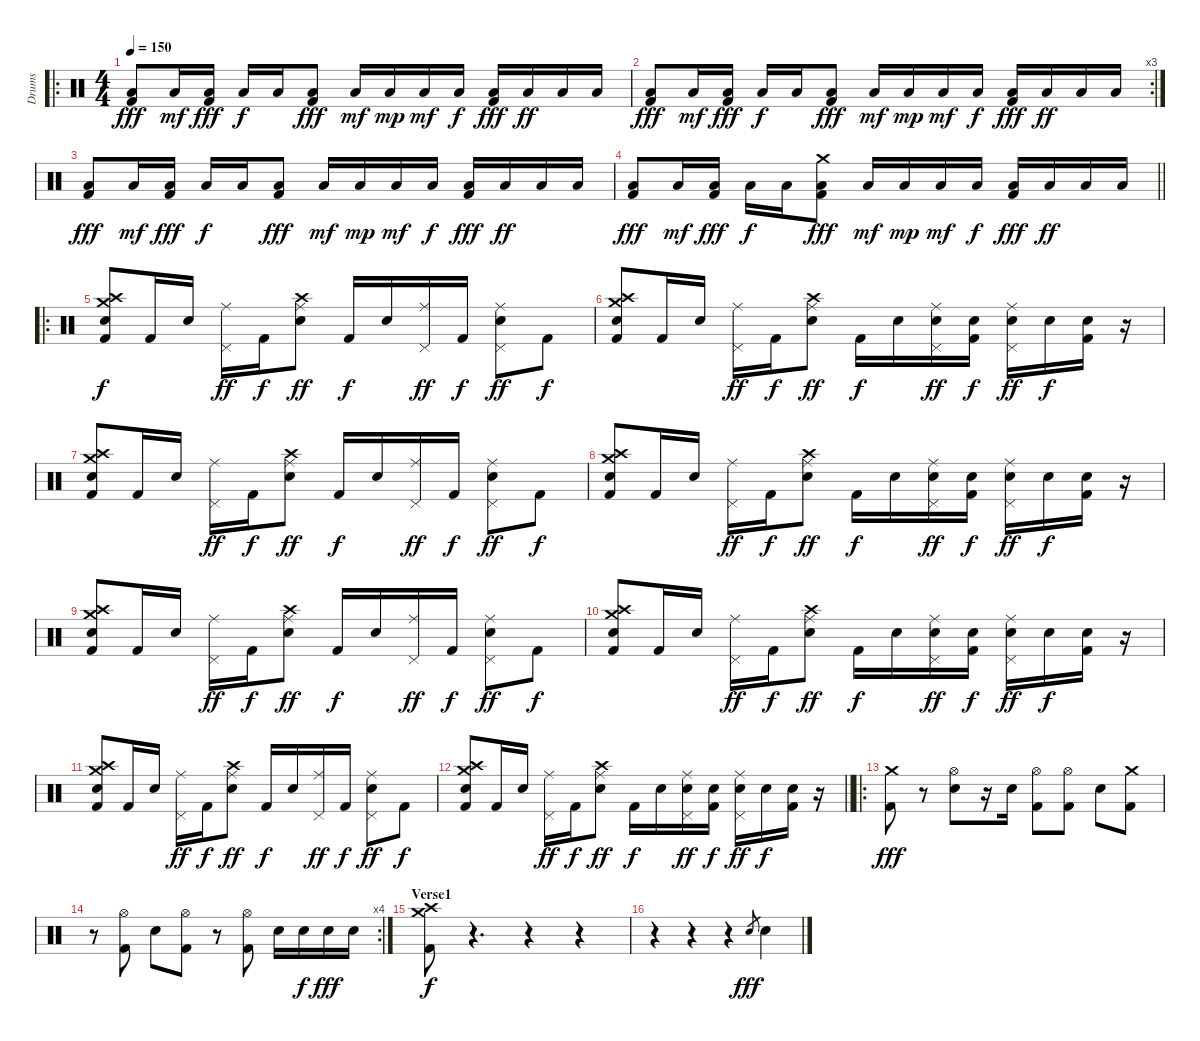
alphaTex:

\track ("Drums" "Drums") {instrument percussion}
\staff {score}
\articulation defaults
\ro
\ts (4 4)
\tempo 150
\clef neutral
\ks c
("Low Floor Tom (hit)" "Kick (hit) 2").8{dy fff} "Low Floor Tom (hit)".16{dy mf} ("Low Floor Tom (hit)" "Kick (hit) 2").16{dy fff} "Low Floor Tom (hit)".16{dy f} "Low Floor Tom (hit)".16 ("Low Floor Tom (hit)" "Kick (hit) 2").8{dy fff} "Low Floor Tom (hit)".16{dy mf} "Low Floor Tom (hit)".16{dy mp} "Low Floor Tom (hit)".16{dy mf} "Low Floor Tom (hit)".16{dy f} ("Low Floor Tom (hit)" "Kick (hit) 2").16{dy fff} "Low Floor Tom (hit)".16{dy ff} "Low Floor Tom (hit)".16 "Low Floor Tom (hit)".16 |
\rc 3
("Low Floor Tom (hit)" "Kick (hit) 2").8{dy fff} "Low Floor Tom (hit)".16{dy mf} ("Low Floor Tom (hit)" "Kick (hit) 2").16{dy fff} "Low Floor Tom (hit)".16{dy f} "Low Floor Tom (hit)".16 ("Low Floor Tom (hit)" "Kick (hit) 2").8{dy fff} "Low Floor Tom (hit)".16{dy mf} "Low Floor Tom (hit)".16{dy mp} "Low Floor Tom (hit)".16{dy mf} "Low Floor Tom (hit)".16{dy f} ("Low Floor Tom (hit)" "Kick (hit) 2").16{dy fff} "Low Floor Tom (hit)".16{dy ff} "Low Floor Tom (hit)".16 "Low Floor Tom (hit)".16 |
("Low Floor Tom (hit)" "Kick (hit) 2").8{dy fff} "Low Floor Tom (hit)".16{dy mf} ("Low Floor Tom (hit)" "Kick (hit) 2").16{dy fff} "Low Floor Tom (hit)".16{dy f} "Low Floor Tom (hit)".16 ("Low Floor Tom (hit)" "Kick (hit) 2").8{dy fff} "Low Floor Tom (hit)".16{dy mf} "Low Floor Tom (hit)".16{dy mp} "Low Floor Tom (hit)".16{dy mf} "Low Floor Tom (hit)".16{dy f} ("Low Floor Tom (hit)" "Kick (hit) 2").16{dy fff} "Low Floor Tom (hit)".16{dy ff} "Low Floor Tom (hit)".16 "Low Floor Tom (hit)".16 |
\barLineRight lightlight
("Low Floor Tom (hit)" "Kick (hit) 2").8{dy fff} "Low Floor Tom (hit)".16{dy mf} ("Low Floor Tom (hit)" "Kick (hit) 2").16{dy fff} "Low Floor Tom (hit)".16{dy f} "Low Floor Tom (hit)".16 ("Crash medium (hit)" "Low Floor Tom (hit)" "Kick (hit) 2").8{dy fff} "Low Floor Tom (hit)".16{dy mf} "Low Floor Tom (hit)".16{dy mp} "Low Floor Tom (hit)".16{dy mf} "Low Floor Tom (hit)".16{dy f} ("Low Floor Tom (hit)" "Kick (hit) 2").16{dy fff} "Low Floor Tom (hit)".16{dy ff} "Low Floor Tom (hit)".16 "Low Floor Tom (hit)".16 |
\ro
("Crash medium (hit)" "Crash high (hit)" "Electric Snare (hit)" "Kick (hit) 2").8{dy f} "Kick (hit) 2".16 "Electric Snare (hit)".16 ("Pedal Hi-Hat (hit)" "Ride (middle)").16{dy ff} "Kick (hit) 2".16{dy f} ("Crash high (hit)" "Ride (middle)" "Electric Snare (hit)").8{dy ff} "Kick (hit) 2".16{dy f} "Electric Snare (hit)".16 ("Pedal Hi-Hat (hit)" "Ride (middle)").16{dy ff} "Kick (hit) 2".16{dy f} ("Pedal Hi-Hat (hit)" "Ride (middle)" "Electric Snare (hit)").8{dy ff} "Kick (hit) 2".8{dy f} |
("Crash medium (hit)" "Crash high (hit)" "Electric Snare (hit)" "Kick (hit) 2").8 "Kick (hit) 2".16 "Electric Snare (hit)".16 ("Pedal Hi-Hat (hit)" "Ride (middle)").16{dy ff} "Kick (hit) 2".16{dy f} ("Crash high (hit)" "Ride (middle)" "Electric Snare (hit)").8{dy ff} "Kick (hit) 2".16{dy f} "Electric Snare (hit)".16 ("Pedal Hi-Hat (hit)" "Ride (middle)" "Electric Snare (hit)").16{dy ff} ("Electric Snare (hit)" "Kick (hit) 2").16{dy f} ("Pedal Hi-Hat (hit)" "Ride (middle)" "Electric Snare (hit)").16{dy ff} "Electric Snare (hit)".16{dy f} ("Electric Snare (hit)" "Kick (hit) 2").16 r.16 |
("Crash medium (hit)" "Crash high (hit)" "Electric Snare (hit)" "Kick (hit) 2").8 "Kick (hit) 2".16 "Electric Snare (hit)".16 ("Pedal Hi-Hat (hit)" "Ride (middle)").16{dy ff} "Kick (hit) 2".16{dy f} ("Crash high (hit)" "Ride (middle)" "Electric Snare (hit)").8{dy ff} "Kick (hit) 2".16{dy f} "Electric Snare (hit)".16 ("Pedal Hi-Hat (hit)" "Ride (middle)").16{dy ff} "Kick (hit) 2".16{dy f} ("Pedal Hi-Hat (hit)" "Ride (middle)" "Electric Snare (hit)").8{dy ff} "Kick (hit) 2".8{dy f} |
("Crash medium (hit)" "Crash high (hit)" "Electric Snare (hit)" "Kick (hit) 2").8 "Kick (hit) 2".16 "Electric Snare (hit)".16 ("Pedal Hi-Hat (hit)" "Ride (middle)").16{dy ff} "Kick (hit) 2".16{dy f} ("Crash high (hit)" "Ride (middle)" "Electric Snare (hit)").8{dy ff} "Kick (hit) 2".16{dy f} "Electric Snare (hit)".16 ("Pedal Hi-Hat (hit)" "Ride (middle)" "Electric Snare (hit)").16{dy ff} ("Electric Snare (hit)" "Kick (hit) 2").16{dy f} ("Pedal Hi-Hat (hit)" "Ride (middle)" "Electric Snare (hit)").16{dy ff} "Electric Snare (hit)".16{dy f} ("Electric Snare (hit)" "Kick (hit) 2").16 r.16 |
("Crash medium (hit)" "Crash high (hit)" "Electric Snare (hit)" "Kick (hit) 2").8 "Kick (hit) 2".16 "Electric Snare (hit)".16 ("Pedal Hi-Hat (hit)" "Ride (middle)").16{dy ff} "Kick (hit) 2".16{dy f} ("Crash high (hit)" "Ride (middle)" "Electric Snare (hit)").8{dy ff} "Kick (hit) 2".16{dy f} "Electric Snare (hit)".16 ("Pedal Hi-Hat (hit)" "Ride (middle)").16{dy ff} "Kick (hit) 2".16{dy f} ("Pedal Hi-Hat (hit)" "Ride (middle)" "Electric Snare (hit)").8{dy ff} "Kick (hit) 2".8{dy f} |
("Crash medium (hit)" "Crash high (hit)" "Electric Snare (hit)" "Kick (hit) 2").8 "Kick (hit) 2".16 "Electric Snare (hit)".16 ("Pedal Hi-Hat (hit)" "Ride (middle)").16{dy ff} "Kick (hit) 2".16{dy f} ("Crash high (hit)" "Ride (middle)" "Electric Snare (hit)").8{dy ff} "Kick (hit) 2".16{dy f} "Electric Snare (hit)".16 ("Pedal Hi-Hat (hit)" "Ride (middle)" "Electric Snare (hit)").16{dy ff} ("Electric Snare (hit)" "Kick (hit) 2").16{dy f} ("Pedal Hi-Hat (hit)" "Ride (middle)" "Electric Snare (hit)").16{dy ff} "Electric Snare (hit)".16{dy f} ("Electric Snare (hit)" "Kick (hit) 2").16 r.16 |
("Crash medium (hit)" "Crash high (hit)" "Electric Snare (hit)" "Kick (hit) 2").8 "Kick (hit) 2".16 "Electric Snare (hit)".16 ("Pedal Hi-Hat (hit)" "Ride (middle)").16{dy ff} "Kick (hit) 2".16{dy f} ("Crash high (hit)" "Ride (middle)" "Electric Snare (hit)").8{dy ff} "Kick (hit) 2".16{dy f} "Electric Snare (hit)".16 ("Pedal Hi-Hat (hit)" "Ride (middle)").16{dy ff} "Kick (hit) 2".16{dy f} ("Pedal Hi-Hat (hit)" "Ride (middle)" "Electric Snare (hit)").8{dy ff} "Kick (hit) 2".8{dy f} |
\barLineRight lightlight
("Crash medium (hit)" "Crash high (hit)" "Electric Snare (hit)" "Kick (hit) 2").8 "Kick (hit) 2".16 "Electric Snare (hit)".16 ("Pedal Hi-Hat (hit)" "Ride (middle)").16{dy ff} "Kick (hit) 2".16{dy f} ("Crash high (hit)" "Ride (middle)" "Electric Snare (hit)").8{dy ff} "Kick (hit) 2".16{dy f} "Electric Snare (hit)".16 ("Pedal Hi-Hat (hit)" "Ride (middle)" "Electric Snare (hit)").16{dy ff} ("Electric Snare (hit)" "Kick (hit) 2").16{dy f} ("Pedal Hi-Hat (hit)" "Ride (middle)" "Electric Snare (hit)").16{dy ff} "Electric Snare (hit)".16{dy f} ("Electric Snare (hit)" "Kick (hit) 2").16 r.16 |
\ro
("Crash medium (hit)" "Kick (hit) 2").8{dy fff} r.8 ("Hi-Hat (open)" "Electric Snare (hit)").8 r.16 "Electric Snare (hit)".16 ("Hi-Hat (open)" "Kick (hit) 2").8 ("Hi-Hat (open)" "Kick (hit) 2").8 "Electric Snare (hit)".8 ("Crash medium (hit)" "Kick (hit) 2").8 |
\rc 4
r.8 ("Hi-Hat (open)" "Kick (hit) 2").8 "Electric Snare (hit)".8 ("Hi-Hat (open)" "Kick (hit) 2").8 r.8 ("Hi-Hat (open)" "Kick (hit) 2").8 "Electric Snare (hit)".16 "Electric Snare (hit)".16{dy f} "Electric Snare (hit)".16{dy fff} "Electric Snare (hit)".16 |
\section ("" "Verse1")
("Crash medium (hit)" "Crash high (hit)" "Kick (hit) 2").8{dy f} r.4{d} r.4 r.4 |
r.4 r.4 r.4 "Electric Snare (hit)".8{gr dy fff} "Electric Snare (hit)".4
